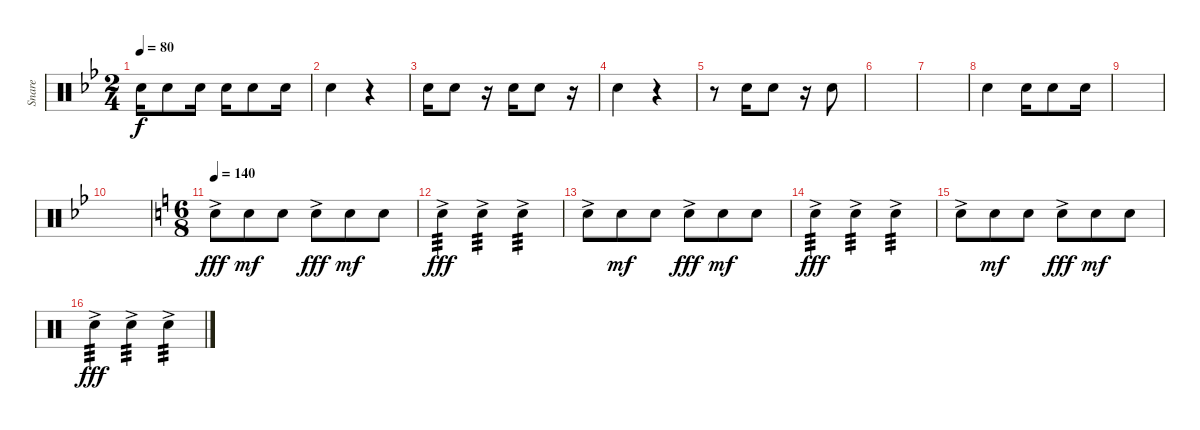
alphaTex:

\track ("Snare" "Snare") {instrument percussion}
\staff {score}
\articulation defaults
\ts (2 4)
\tempo 80
\clef neutral
\ks bb "Electric Snare (hit)".16{dy f} "Electric Snare (hit)".8 "Electric Snare (hit)".16 "Electric Snare (hit)".16 "Electric Snare (hit)".8 "Electric Snare (hit)".16
|
"Electric Snare (hit)".4 r.4 |
"Electric Snare (hit)".16 "Electric Snare (hit)".8 r.16 "Electric Snare (hit)".16 "Electric Snare (hit)".8 r.16 |
"Electric Snare (hit)".4 r.4 |
r.8 "Electric Snare (hit)".16 "Electric Snare (hit)".8 r.16 "Electric Snare (hit)".8 |
|
|
"Electric Snare (hit)".4 "Electric Snare (hit)".16 "Electric Snare (hit)".8 "Electric Snare (hit)".16 |
|
|
\ts (6 8)
\tempo 140
\ks c "Electric Snare (hit)"{ac}.8{dy fff} "Electric Snare (hit)".8{dy mf} "Electric Snare (hit)".8 "Electric Snare (hit)"{ac}.8{dy fff} "Electric Snare (hit)".8{dy mf} "Electric Snare (hit)".8
|
"Electric Snare (hit)"{ac}.4{tp 3 dy fff} "Electric Snare (hit)"{ac}.4{tp 3} "Electric Snare (hit)"{ac}.4{tp 3} |
"Electric Snare (hit)"{ac}.8 "Electric Snare (hit)".8{dy mf} "Electric Snare (hit)".8 "Electric Snare (hit)"{ac}.8{dy fff} "Electric Snare (hit)".8{dy mf} "Electric Snare (hit)".8 |
"Electric Snare (hit)"{ac}.4{tp 3 dy fff} "Electric Snare (hit)"{ac}.4{tp 3} "Electric Snare (hit)"{ac}.4{tp 3} |
"Electric Snare (hit)"{ac}.8 "Electric Snare (hit)".8{dy mf} "Electric Snare (hit)".8 "Electric Snare (hit)"{ac}.8{dy fff} "Electric Snare (hit)".8{dy mf} "Electric Snare (hit)".8 |
"Electric Snare (hit)"{ac}.4{tp 3 dy fff} "Electric Snare (hit)"{ac}.4{tp 3} "Electric Snare (hit)"{ac}.4{tp 3}
